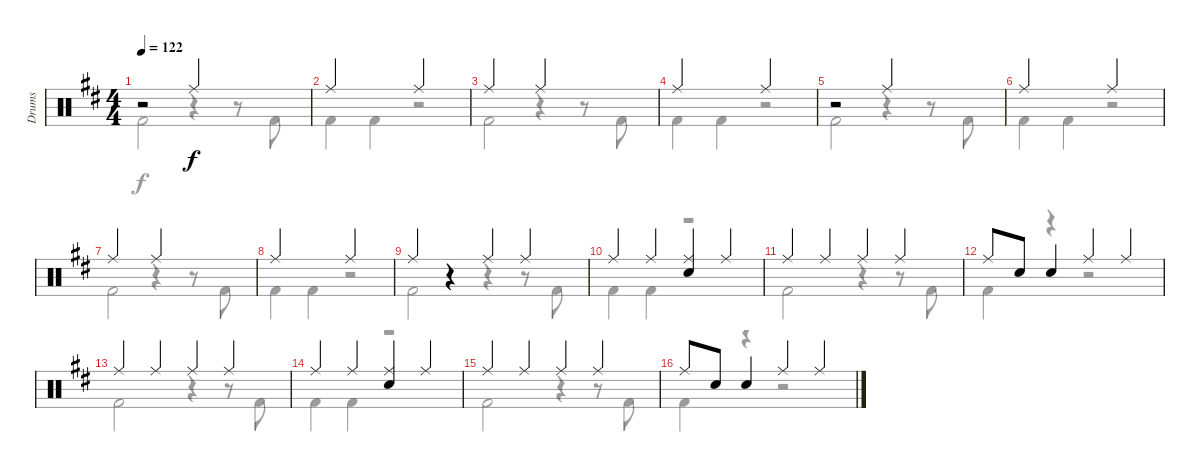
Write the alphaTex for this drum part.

\track ("Drums" "Drums") {instrument percussion}
\staff {score}
\articulation defaults
\voice
\ts (4 4)
\tempo 122
\clef neutral
\ks d
r.2{dy ff} "Ride (middle)".2{dy f} |
"Ride (middle)".2 "Ride (middle)".2 |
"Ride (middle)".2 "Ride (middle)".2 |
"Ride (middle)".2 "Ride (middle)".2 |
r.2 "Ride (middle)".2 |
"Ride (middle)".2 "Ride (middle)".2 |
"Ride (middle)".2 "Ride (middle)".2 |
"Ride (middle)".2 "Ride (middle)".2 |
"Ride (middle)".4 r.4 "Ride (middle)".4 "Ride (middle)".4 |
"Ride (middle)".4 "Ride (middle)".4 ("Ride (middle)" "Electric Snare (hit)").4 "Ride (middle)".4 |
"Ride (middle)".4 "Ride (middle)".4 "Ride (middle)".4 "Ride (middle)".4 |
"Ride (middle)".8 "Electric Snare (hit)".8 "Electric Snare (hit)".4 "Ride (middle)".4 "Ride (middle)".4 |
"Ride (middle)".4 "Ride (middle)".4 "Ride (middle)".4 "Ride (middle)".4 |
"Ride (middle)".4 "Ride (middle)".4 ("Ride (middle)" "Electric Snare (hit)").4 "Ride (middle)".4 |
"Ride (middle)".4 "Ride (middle)".4 "Ride (middle)".4 "Ride (middle)".4 |
"Ride (middle)".8 "Electric Snare (hit)".8 "Electric Snare (hit)".4 "Ride (middle)".4 "Ride (middle)".4
\voice
\clef neutral
\ottava regular
\simile none
\ks d "Kick (hit) 2".2{dy f}
r.4 r.8 "Kick (hit) 2".8 |
"Kick (hit) 2".4 "Kick (hit) 2".4 r.2 |
"Kick (hit) 2".2 r.4 r.8 "Kick (hit) 2".8 |
"Kick (hit) 2".4 "Kick (hit) 2".4 r.2 |
"Kick (hit) 2".2 r.4 r.8 "Kick (hit) 2".8 |
"Kick (hit) 2".4 "Kick (hit) 2".4 r.2 |
"Kick (hit) 2".2 r.4 r.8 "Kick (hit) 2".8 |
"Kick (hit) 2".4 "Kick (hit) 2".4 r.2 |
"Kick (hit) 2".2 r.4 r.8 "Kick (hit) 2".8 |
"Kick (hit) 2".4 "Kick (hit) 2".4 r.2 |
"Kick (hit) 2".2 r.4 r.8 "Kick (hit) 2".8 |
"Kick (hit) 2".4 r.4 r.2 |
"Kick (hit) 2".2 r.4 r.8 "Kick (hit) 2".8 |
"Kick (hit) 2".4 "Kick (hit) 2".4 r.2 |
"Kick (hit) 2".2 r.4 r.8 "Kick (hit) 2".8 |
"Kick (hit) 2".4 r.4 r.2
